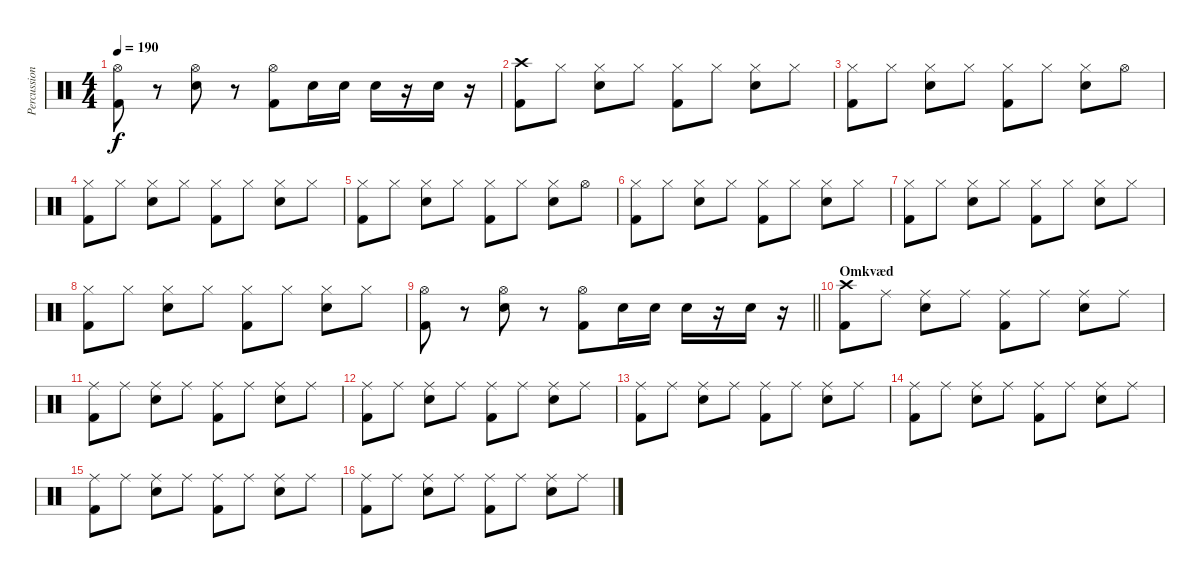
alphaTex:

\track ("Percussion" "Percussion") {instrument percussion}
\staff {score}
\articulation defaults
\ts (4 4)
\tempo 190
\clef neutral
\ks c
("Kick (hit) 2" "Hi-Hat (open)").8{dy f} r.8 ("Hi-Hat (open)" "Snare (hit) 2").8 r.8 ("Kick (hit) 2" "Hi-Hat (open)").8 "Snare (hit) 2".16 "Snare (hit) 2".16 "Snare (hit) 2".16 r.16 "Snare (hit) 2".16 r.16 |
("Kick (hit) 2" "Crash high (hit)").8 "Hi-Hat (closed)".8 ("Hi-Hat (closed)" "Snare (hit) 2").8 "Hi-Hat (closed)".8 ("Kick (hit) 2" "Hi-Hat (closed)").8 "Hi-Hat (closed)".8 ("Hi-Hat (closed)" "Snare (hit) 2").8 "Hi-Hat (closed)".8 |
("Kick (hit) 2" "Hi-Hat (closed)").8 "Hi-Hat (closed)".8 ("Hi-Hat (closed)" "Snare (hit) 2").8 "Hi-Hat (closed)".8 ("Kick (hit) 2" "Hi-Hat (closed)").8 "Hi-Hat (closed)".8 ("Hi-Hat (closed)" "Snare (hit) 2").8 "Hi-Hat (open)".8 |
("Kick (hit) 2" "Hi-Hat (closed)").8 "Hi-Hat (closed)".8 ("Hi-Hat (closed)" "Snare (hit) 2").8 "Hi-Hat (closed)".8 ("Kick (hit) 2" "Hi-Hat (closed)").8 "Hi-Hat (closed)".8 ("Hi-Hat (closed)" "Snare (hit) 2").8 "Hi-Hat (closed)".8 |
("Kick (hit) 2" "Hi-Hat (closed)").8 "Hi-Hat (closed)".8 ("Hi-Hat (closed)" "Snare (hit) 2").8 "Hi-Hat (closed)".8 ("Kick (hit) 2" "Hi-Hat (closed)").8 "Hi-Hat (closed)".8 ("Hi-Hat (closed)" "Snare (hit) 2").8 "Hi-Hat (open)".8 |
("Kick (hit) 2" "Hi-Hat (closed)").8 "Hi-Hat (closed)".8 ("Hi-Hat (closed)" "Snare (hit) 2").8 "Hi-Hat (closed)".8 ("Kick (hit) 2" "Hi-Hat (closed)").8 "Hi-Hat (closed)".8 ("Hi-Hat (closed)" "Snare (hit) 2").8 "Hi-Hat (closed)".8 |
("Kick (hit) 2" "Hi-Hat (closed)").8 "Hi-Hat (closed)".8 ("Hi-Hat (closed)" "Snare (hit) 2").8 "Hi-Hat (closed)".8 ("Kick (hit) 2" "Hi-Hat (closed)").8 "Hi-Hat (closed)".8 ("Hi-Hat (closed)" "Snare (hit) 2").8 "Hi-Hat (closed)".8 |
("Kick (hit) 2" "Hi-Hat (closed)").8 "Hi-Hat (closed)".8 ("Hi-Hat (closed)" "Snare (hit) 2").8 "Hi-Hat (closed)".8 ("Kick (hit) 2" "Hi-Hat (closed)").8 "Hi-Hat (closed)".8 ("Hi-Hat (closed)" "Snare (hit) 2").8 "Hi-Hat (closed)".8 |
\barLineRight lightlight
("Kick (hit) 2" "Hi-Hat (open)").8 r.8 ("Hi-Hat (open)" "Snare (hit) 2").8 r.8 ("Kick (hit) 2" "Hi-Hat (open)").8 "Snare (hit) 2".16 "Snare (hit) 2".16 "Snare (hit) 2".16 r.16 "Snare (hit) 2".16 r.16 |
\section ("" "Omkvæd")
("Kick (hit) 2" "Crash high (hit)").8 "Ride (middle)".8 ("Ride (middle)" "Snare (hit) 2").8 "Ride (middle)".8 ("Kick (hit) 2" "Ride (middle)").8 "Ride (middle)".8 ("Ride (middle)" "Snare (hit) 2").8 "Ride (middle)".8 |
("Kick (hit) 2" "Ride (middle)").8 "Ride (middle)".8 ("Ride (middle)" "Snare (hit) 2").8 "Ride (middle)".8 ("Kick (hit) 2" "Ride (middle)").8 "Ride (middle)".8 ("Ride (middle)" "Snare (hit) 2").8 "Ride (middle)".8 |
("Kick (hit) 2" "Ride (middle)").8 "Ride (middle)".8 ("Ride (middle)" "Snare (hit) 2").8 "Ride (middle)".8 ("Kick (hit) 2" "Ride (middle)").8 "Ride (middle)".8 ("Ride (middle)" "Snare (hit) 2").8 "Ride (middle)".8 |
("Kick (hit) 2" "Ride (middle)").8 "Ride (middle)".8 ("Ride (middle)" "Snare (hit) 2").8 "Ride (middle)".8 ("Kick (hit) 2" "Ride (middle)").8 "Ride (middle)".8 ("Ride (middle)" "Snare (hit) 2").8 "Ride (middle)".8 |
("Kick (hit) 2" "Ride (middle)").8 "Ride (middle)".8 ("Ride (middle)" "Snare (hit) 2").8 "Ride (middle)".8 ("Kick (hit) 2" "Ride (middle)").8 "Ride (middle)".8 ("Ride (middle)" "Snare (hit) 2").8 "Ride (middle)".8 |
("Kick (hit) 2" "Ride (middle)").8 "Ride (middle)".8 ("Ride (middle)" "Snare (hit) 2").8 "Ride (middle)".8 ("Kick (hit) 2" "Ride (middle)").8 "Ride (middle)".8 ("Ride (middle)" "Snare (hit) 2").8 "Ride (middle)".8 |
("Kick (hit) 2" "Ride (middle)").8 "Ride (middle)".8 ("Ride (middle)" "Snare (hit) 2").8 "Ride (middle)".8 ("Kick (hit) 2" "Ride (middle)").8 "Ride (middle)".8 ("Ride (middle)" "Snare (hit) 2").8 "Ride (middle)".8
